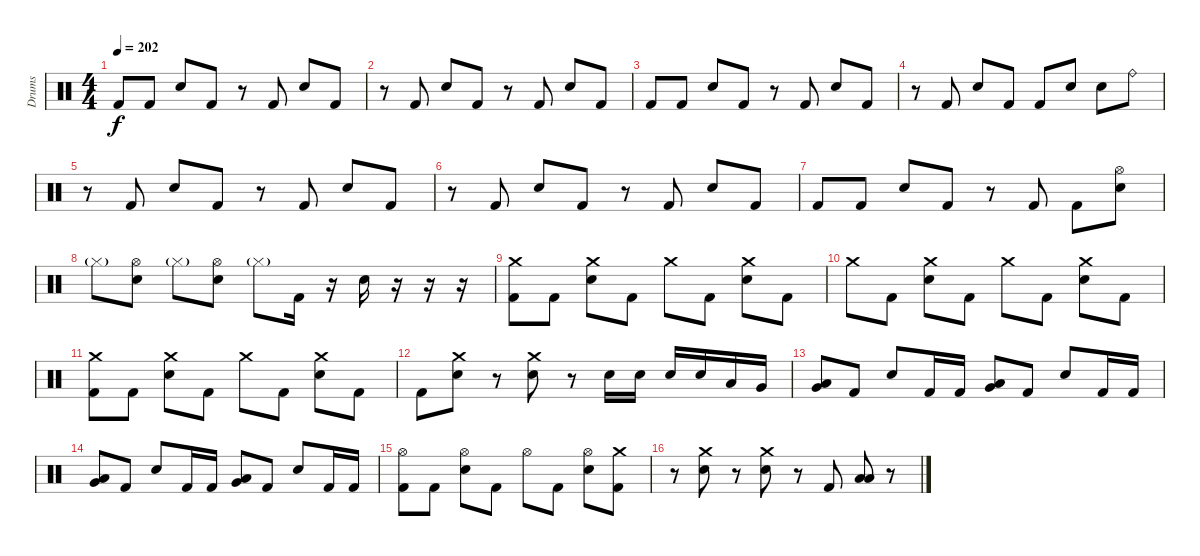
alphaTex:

\track ("Drums" "Drums") {instrument percussion}
\staff {score}
\articulation defaults
\ts (4 4)
\tempo 202
\clef neutral
\ks c "Kick (hit) 2".8{dy f} "Kick (hit) 2".8 "Electric Snare (hit)".8 "Kick (hit) 2".8
r.8 "Kick (hit) 2".8 "Electric Snare (hit)".8 "Kick (hit) 2".8 |
r.8 "Kick (hit) 2".8 "Electric Snare (hit)".8 "Kick (hit) 2".8 r.8 "Kick (hit) 2".8 "Electric Snare (hit)".8 "Kick (hit) 2".8 |
"Kick (hit) 2".8 "Kick (hit) 2".8 "Electric Snare (hit)".8 "Kick (hit) 2".8 r.8 "Kick (hit) 2".8 "Electric Snare (hit)".8 "Kick (hit) 2".8 |
r.8 "Kick (hit) 2".8 "Electric Snare (hit)".8 "Kick (hit) 2".8 "Kick (hit) 2".8 "Electric Snare (hit)".8 "Electric Snare (hit)".8 "Ride (bell)".8 |
r.8 "Kick (hit) 2".8 "Electric Snare (hit)".8 "Kick (hit) 2".8 r.8 "Kick (hit) 2".8 "Electric Snare (hit)".8 "Kick (hit) 2".8 |
r.8 "Kick (hit) 2".8 "Electric Snare (hit)".8 "Kick (hit) 2".8 r.8 "Kick (hit) 2".8 "Electric Snare (hit)".8 "Kick (hit) 2".8 |
"Kick (hit) 2".8 "Kick (hit) 2".8 "Electric Snare (hit)".8 "Kick (hit) 2".8 r.8 "Kick (hit) 2".8 "Kick (hit) 2".8 ("Hi-Hat (open)" "Electric Snare (hit)").8 |
"Hi-Hat (closed)"{g}.8 ("Hi-Hat (open)" "Electric Snare (hit)").8 "Hi-Hat (closed)"{g}.8 ("Hi-Hat (open)" "Electric Snare (hit)").8 "Hi-Hat (closed)"{g}.8 "Kick (hit) 2".16 r.16 "Electric Snare (hit)".16 r.16 r.16 r.16 |
("Crash medium (hit)" "Kick (hit) 2").8 "Kick (hit) 2".8 ("Crash medium (hit)" "Electric Snare (hit)").8 "Kick (hit) 2".8 "Crash medium (hit)".8 "Kick (hit) 2".8 ("Crash medium (hit)" "Electric Snare (hit)").8 "Kick (hit) 2".8 |
"Crash medium (hit)".8 "Kick (hit) 2".8 ("Crash medium (hit)" "Electric Snare (hit)").8 "Kick (hit) 2".8 "Crash medium (hit)".8 "Kick (hit) 2".8 ("Crash medium (hit)" "Electric Snare (hit)").8 "Kick (hit) 2".8 |
("Crash medium (hit)" "Kick (hit) 2").8 "Kick (hit) 2".8 ("Crash medium (hit)" "Electric Snare (hit)").8 "Kick (hit) 2".8 "Crash medium (hit)".8 "Kick (hit) 2".8 ("Crash medium (hit)" "Electric Snare (hit)").8 "Kick (hit) 2".8 |
"Kick (hit) 2".8 ("Crash medium (hit)" "Electric Snare (hit)").8 r.8 ("Crash medium (hit)" "Electric Snare (hit)").8 r.8 "Electric Snare (hit)".16 "Electric Snare (hit)".16 "Electric Snare (hit)".16 "Electric Snare (hit)".16 "Low Tom (hit)".16 "Very Low Tom (hit)".16 |
("Low Tom (hit)" "Very Low Tom (hit)").8 "Kick (hit) 2".8 "Electric Snare (hit)".8 "Kick (hit) 2".16 "Kick (hit) 2".16 ("Low Tom (hit)" "Very Low Tom (hit)").8 "Kick (hit) 2".8 "Electric Snare (hit)".8 "Kick (hit) 2".16 "Kick (hit) 2".16 |
("Low Tom (hit)" "Very Low Tom (hit)").8 "Kick (hit) 2".8 "Electric Snare (hit)".8 "Kick (hit) 2".16 "Kick (hit) 2".16 ("Low Tom (hit)" "Very Low Tom (hit)").8 "Kick (hit) 2".8 "Electric Snare (hit)".8 "Kick (hit) 2".16 "Kick (hit) 2".16 |
("Hi-Hat (open)" "Kick (hit) 2").8 "Kick (hit) 2".8 ("Hi-Hat (open)" "Electric Snare (hit)").8 "Kick (hit) 2".8 "Hi-Hat (open)".8 "Kick (hit) 2".8 ("Hi-Hat (open)" "Electric Snare (hit)").8 ("Crash medium (hit)" "Kick (hit) 2").8 |
r.8 ("Crash medium (hit)" "Electric Snare (hit)").8 r.8 ("Crash medium (hit)" "Electric Snare (hit)").8 r.8 "Kick (hit) 2".8 ("Low Floor Tom (hit)" "Low Tom (hit)").8 r.8
